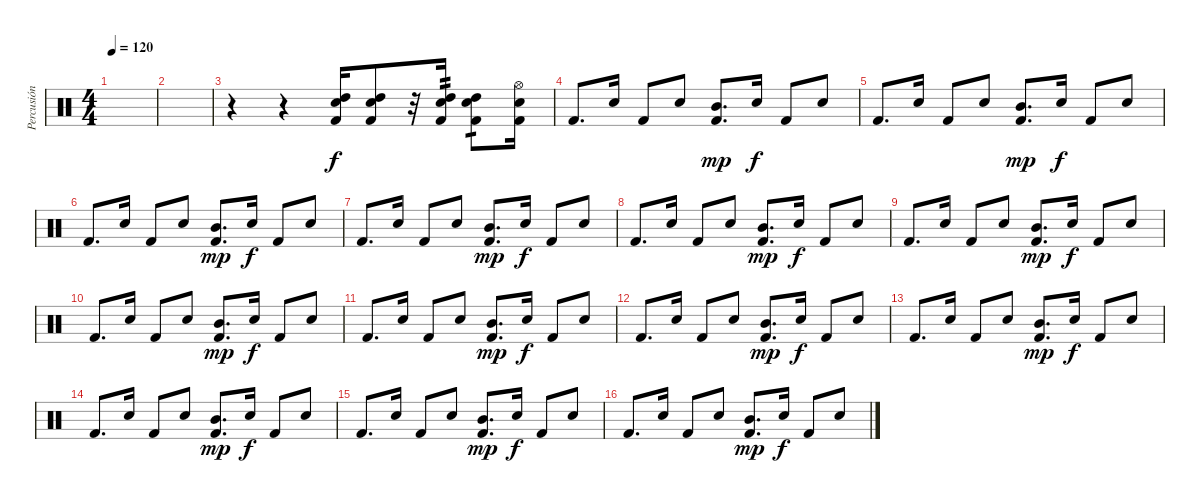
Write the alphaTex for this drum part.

\track ("Percusión" "Percusión") {instrument percussion}
\staff {score}
\articulation defaults
\ts (4 4)
\tempo 120
\clef neutral
\ks c
|
|
r.4 r.4 ("High Tom (hit)" "Electric Snare (hit)" "Kick (hit) 2").16 ("High Tom (hit)" "Electric Snare (hit)" "Kick (hit) 2").8 r.32 ("High Tom (hit)" "Electric Snare (hit)" "Kick (hit) 2").16{tp 2} ("High Tom (hit)" "Electric Snare (hit)" "Kick (hit) 2").8{tp 1} ("Hi-Hat (open)" "Electric Snare (hit)" "Kick (hit) 2").16 |
"Kick (hit) 2".8{d} "Electric Snare (hit)".16 "Kick (hit) 2".8 "Electric Snare (hit)".8 ("Kick (hit) 2" "Mid Tom (hit)").8{d dy mp} "Electric Snare (hit)".16{dy f} "Kick (hit) 2".8 "Electric Snare (hit)".8 |
"Kick (hit) 2".8{d} "Electric Snare (hit)".16 "Kick (hit) 2".8 "Electric Snare (hit)".8 ("Kick (hit) 2" "Mid Tom (hit)").8{d dy mp} "Electric Snare (hit)".16{dy f} "Kick (hit) 2".8 "Electric Snare (hit)".8 |
"Kick (hit) 2".8{d} "Electric Snare (hit)".16 "Kick (hit) 2".8 "Electric Snare (hit)".8 ("Kick (hit) 2" "Mid Tom (hit)").8{d dy mp} "Electric Snare (hit)".16{dy f} "Kick (hit) 2".8 "Electric Snare (hit)".8 |
"Kick (hit) 2".8{d} "Electric Snare (hit)".16 "Kick (hit) 2".8 "Electric Snare (hit)".8 ("Kick (hit) 2" "Mid Tom (hit)").8{d dy mp} "Electric Snare (hit)".16{dy f} "Kick (hit) 2".8 "Electric Snare (hit)".8 |
"Kick (hit) 2".8{d} "Electric Snare (hit)".16 "Kick (hit) 2".8 "Electric Snare (hit)".8 ("Kick (hit) 2" "Mid Tom (hit)").8{d dy mp} "Electric Snare (hit)".16{dy f} "Kick (hit) 2".8 "Electric Snare (hit)".8 |
"Kick (hit) 2".8{d} "Electric Snare (hit)".16 "Kick (hit) 2".8 "Electric Snare (hit)".8 ("Kick (hit) 2" "Mid Tom (hit)").8{d dy mp} "Electric Snare (hit)".16{dy f} "Kick (hit) 2".8 "Electric Snare (hit)".8 |
"Kick (hit) 2".8{d} "Electric Snare (hit)".16 "Kick (hit) 2".8 "Electric Snare (hit)".8 ("Kick (hit) 2" "Mid Tom (hit)").8{d dy mp} "Electric Snare (hit)".16{dy f} "Kick (hit) 2".8 "Electric Snare (hit)".8 |
"Kick (hit) 2".8{d} "Electric Snare (hit)".16 "Kick (hit) 2".8 "Electric Snare (hit)".8 ("Kick (hit) 2" "Mid Tom (hit)").8{d dy mp} "Electric Snare (hit)".16{dy f} "Kick (hit) 2".8 "Electric Snare (hit)".8 |
"Kick (hit) 2".8{d} "Electric Snare (hit)".16 "Kick (hit) 2".8 "Electric Snare (hit)".8 ("Kick (hit) 2" "Mid Tom (hit)").8{d dy mp} "Electric Snare (hit)".16{dy f} "Kick (hit) 2".8 "Electric Snare (hit)".8 |
"Kick (hit) 2".8{d} "Electric Snare (hit)".16 "Kick (hit) 2".8 "Electric Snare (hit)".8 ("Kick (hit) 2" "Mid Tom (hit)").8{d dy mp} "Electric Snare (hit)".16{dy f} "Kick (hit) 2".8 "Electric Snare (hit)".8 |
"Kick (hit) 2".8{d} "Electric Snare (hit)".16 "Kick (hit) 2".8 "Electric Snare (hit)".8 ("Kick (hit) 2" "Mid Tom (hit)").8{d dy mp} "Electric Snare (hit)".16{dy f} "Kick (hit) 2".8 "Electric Snare (hit)".8 |
"Kick (hit) 2".8{d} "Electric Snare (hit)".16 "Kick (hit) 2".8 "Electric Snare (hit)".8 ("Kick (hit) 2" "Mid Tom (hit)").8{d dy mp} "Electric Snare (hit)".16{dy f} "Kick (hit) 2".8 "Electric Snare (hit)".8 |
"Kick (hit) 2".8{d} "Electric Snare (hit)".16 "Kick (hit) 2".8 "Electric Snare (hit)".8 ("Kick (hit) 2" "Mid Tom (hit)").8{d dy mp} "Electric Snare (hit)".16{dy f} "Kick (hit) 2".8 "Electric Snare (hit)".8
